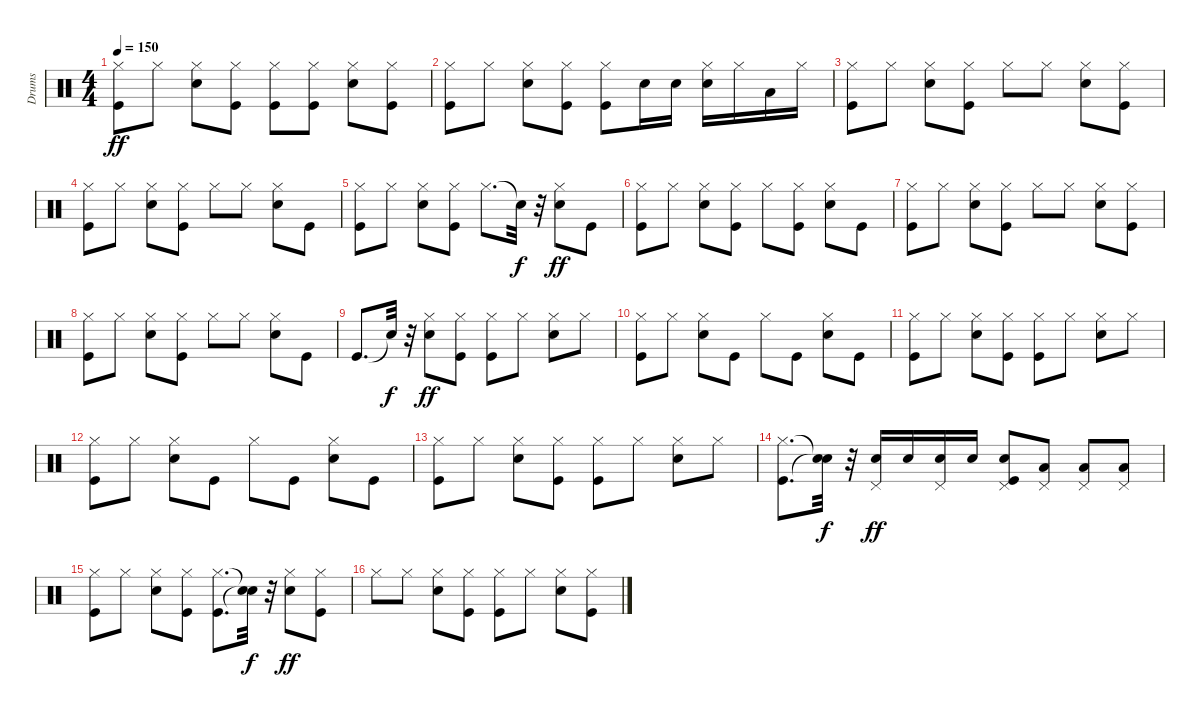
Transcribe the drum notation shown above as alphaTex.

\track ("Drums" "Drums") {instrument percussion}
\staff {score}
\articulation defaults
\ts (4 4)
\tempo 150
\clef neutral
\ks c
("Kick (hit)" "Hi-Hat (closed)").8{dy ff} "Hi-Hat (closed)".8 ("Snare (hit) 2" "Hi-Hat (closed)").8 ("Kick (hit)" "Hi-Hat (closed)").8 ("Kick (hit)" "Hi-Hat (closed)").8 ("Kick (hit)" "Hi-Hat (closed)").8 ("Snare (hit) 2" "Hi-Hat (closed)").8 ("Kick (hit)" "Hi-Hat (closed)").8 |
("Kick (hit)" "Hi-Hat (closed)").8 "Hi-Hat (closed)".8 ("Snare (hit) 2" "Hi-Hat (closed)").8 ("Kick (hit)" "Hi-Hat (closed)").8 ("Kick (hit)" "Hi-Hat (closed)").8 "Snare (hit) 2".16 "Snare (hit) 2".16 ("Snare (hit) 2" "Hi-Hat (closed)").16 "Hi-Hat (closed)".16 "Low Floor Tom (hit)".16 "Hi-Hat (closed)".16 |
("Kick (hit)" "Hi-Hat (closed)").8 "Hi-Hat (closed)".8 ("Snare (hit) 2" "Hi-Hat (closed)").8 ("Kick (hit)" "Hi-Hat (closed)").8 "Hi-Hat (closed)".8 "Hi-Hat (closed)".8 ("Snare (hit) 2" "Hi-Hat (closed)").8 ("Kick (hit)" "Hi-Hat (closed)").8 |
("Kick (hit)" "Hi-Hat (closed)").8 "Hi-Hat (closed)".8 ("Snare (hit) 2" "Hi-Hat (closed)").8 ("Kick (hit)" "Hi-Hat (closed)").8 "Hi-Hat (closed)".8 "Hi-Hat (closed)".8 ("Snare (hit) 2" "Hi-Hat (closed)").8 "Kick (hit)".8 |
("Kick (hit)" "Hi-Hat (closed)").8 "Hi-Hat (closed)".8 ("Snare (hit) 2" "Hi-Hat (closed)").8 ("Kick (hit)" "Hi-Hat (closed)").8 "Hi-Hat (closed)".8{d} "Snare (hit)"{t}.32{dy f} r.32 ("Snare (hit) 2" "Hi-Hat (closed)").8{dy ff} "Kick (hit)".8 |
("Kick (hit)" "Hi-Hat (closed)").8 "Hi-Hat (closed)".8 ("Snare (hit) 2" "Hi-Hat (closed)").8 ("Kick (hit)" "Hi-Hat (closed)").8 "Hi-Hat (closed)".8 ("Kick (hit)" "Hi-Hat (closed)").8 ("Snare (hit) 2" "Hi-Hat (closed)").8 "Kick (hit)".8 |
("Kick (hit)" "Hi-Hat (closed)").8 "Hi-Hat (closed)".8 ("Snare (hit) 2" "Hi-Hat (closed)").8 ("Kick (hit)" "Hi-Hat (closed)").8 "Hi-Hat (closed)".8 "Hi-Hat (closed)".8 ("Snare (hit) 2" "Hi-Hat (closed)").8 ("Kick (hit)" "Hi-Hat (closed)").8 |
("Kick (hit)" "Hi-Hat (closed)").8 "Hi-Hat (closed)".8 ("Snare (hit) 2" "Hi-Hat (closed)").8 ("Kick (hit)" "Hi-Hat (closed)").8 "Hi-Hat (closed)".8 "Hi-Hat (closed)".8 ("Snare (hit) 2" "Hi-Hat (closed)").8 "Kick (hit)".8 |
"Kick (hit)".8{d} "Snare (hit)"{t}.32{dy f} r.32 ("Snare (hit) 2" "Hi-Hat (closed)").8{dy ff} ("Kick (hit)" "Hi-Hat (closed)").8 ("Kick (hit)" "Hi-Hat (closed)").8 "Hi-Hat (closed)".8 ("Snare (hit) 2" "Hi-Hat (closed)").8 "Hi-Hat (closed)".8 |
("Kick (hit)" "Hi-Hat (closed)").8 "Hi-Hat (closed)".8 ("Snare (hit) 2" "Hi-Hat (closed)").8 "Kick (hit)".8 "Hi-Hat (closed)".8 "Kick (hit)".8 ("Snare (hit) 2" "Hi-Hat (closed)").8 "Kick (hit)".8 |
("Kick (hit)" "Hi-Hat (closed)").8 "Hi-Hat (closed)".8 ("Snare (hit) 2" "Hi-Hat (closed)").8 ("Kick (hit)" "Hi-Hat (closed)").8 ("Kick (hit)" "Hi-Hat (closed)").8 "Hi-Hat (closed)".8 ("Snare (hit) 2" "Hi-Hat (closed)").8 "Hi-Hat (closed)".8 |
("Kick (hit)" "Hi-Hat (closed)").8 "Hi-Hat (closed)".8 ("Snare (hit) 2" "Hi-Hat (closed)").8 "Kick (hit)".8 "Hi-Hat (closed)".8 "Kick (hit)".8 ("Snare (hit) 2" "Hi-Hat (closed)").8 "Kick (hit)".8 |
("Kick (hit)" "Hi-Hat (closed)").8 "Hi-Hat (closed)".8 ("Snare (hit) 2" "Hi-Hat (closed)").8 ("Kick (hit)" "Hi-Hat (closed)").8 ("Kick (hit)" "Hi-Hat (closed)").8 "Hi-Hat (closed)".8 ("Snare (hit) 2" "Hi-Hat (closed)").8 "Hi-Hat (closed)".8 |
("Kick (hit)" "Hi-Hat (closed)").8{d} ("Snare (hit)"{t} "Snare (hit)"{t}).32{dy f} r.32 ("Snare (hit) 2" "Pedal Hi-Hat (hit)").16{dy ff} "Snare (hit) 2".16 ("Snare (hit) 2" "Pedal Hi-Hat (hit)").16 "Snare (hit) 2".16 ("Kick (hit)" "Snare (hit) 2" "Pedal Hi-Hat (hit)").8 ("Pedal Hi-Hat (hit)" "Low Tom (hit)").8 ("Low Floor Tom (hit)" "Pedal Hi-Hat (hit)").8 ("Low Floor Tom (hit)" "Pedal Hi-Hat (hit)").8 |
("Kick (hit)" "Hi-Hat (closed)").8 "Hi-Hat (closed)".8 ("Snare (hit) 2" "Hi-Hat (closed)").8 ("Kick (hit)" "Hi-Hat (closed)").8 ("Kick (hit)" "Hi-Hat (closed)").8{d} ("Snare (hit)"{t} "Snare (hit)"{t}).32{dy f} r.32 ("Snare (hit) 2" "Hi-Hat (closed)").8{dy ff} ("Kick (hit)" "Hi-Hat (closed)").8 |
"Hi-Hat (closed)".8 "Hi-Hat (closed)".8 ("Snare (hit) 2" "Hi-Hat (closed)").8 ("Kick (hit)" "Hi-Hat (closed)").8 ("Kick (hit)" "Hi-Hat (closed)").8 "Hi-Hat (closed)".8 ("Snare (hit) 2" "Hi-Hat (closed)").8 ("Kick (hit)" "Hi-Hat (closed)").8
